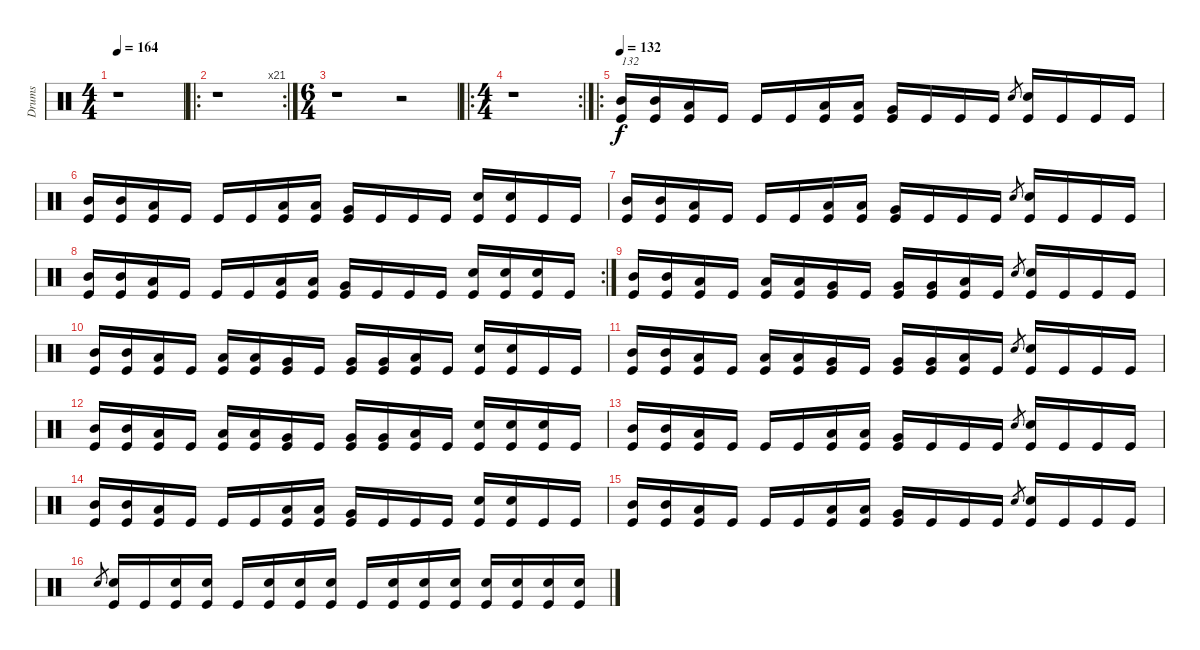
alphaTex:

\track ("Drums" "Drums") {instrument percussion}
\staff {score}
\articulation defaults
\ts (4 4)
\tempo 164
\tempo 126
\tempo 164
\clef neutral
\ks c
r.1{dy f} |
\ro
\rc 21
r.1 |
\ts (6 4)
r.1 r.2 |
\ro
\rc 2
\ts (4 4)
r.1 |
\ro
\tempo 132
("Mid Tom (hit)" "Kick (hit)").16{txt "132"} ("Mid Tom (hit)" "Kick (hit)").16 ("Low Tom (hit)" "Kick (hit)").16 "Kick (hit)".16 "Kick (hit)".16 "Kick (hit)".16 ("Low Tom (hit)" "Kick (hit)").16 ("Low Tom (hit)" "Kick (hit)").16 ("Very Low Tom (hit)" "Kick (hit)").16 "Kick (hit)".16 "Kick (hit)".16 "Kick (hit)".16 "Snare (hit) 2".8{gr} ("Snare (hit) 2" "Kick (hit)").16 "Kick (hit)".16 "Kick (hit)".16 "Kick (hit)".16 |
("Mid Tom (hit)" "Kick (hit)").16 ("Mid Tom (hit)" "Kick (hit)").16 ("Low Tom (hit)" "Kick (hit)").16 "Kick (hit)".16 "Kick (hit)".16 "Kick (hit)".16 ("Low Tom (hit)" "Kick (hit)").16 ("Low Tom (hit)" "Kick (hit)").16 ("Very Low Tom (hit)" "Kick (hit)").16 "Kick (hit)".16 "Kick (hit)".16 "Kick (hit)".16 ("Snare (hit) 2" "Kick (hit)").16 ("Snare (hit) 2" "Kick (hit)").16 "Kick (hit)".16 "Kick (hit)".16 |
("Mid Tom (hit)" "Kick (hit)").16 ("Mid Tom (hit)" "Kick (hit)").16 ("Low Tom (hit)" "Kick (hit)").16 "Kick (hit)".16 "Kick (hit)".16 "Kick (hit)".16 ("Low Tom (hit)" "Kick (hit)").16 ("Low Tom (hit)" "Kick (hit)").16 ("Very Low Tom (hit)" "Kick (hit)").16 "Kick (hit)".16 "Kick (hit)".16 "Kick (hit)".16 "Snare (hit) 2".8{gr} ("Snare (hit) 2" "Kick (hit)").16 "Kick (hit)".16 "Kick (hit)".16 "Kick (hit)".16 |
\rc 2
("Mid Tom (hit)" "Kick (hit)").16 ("Mid Tom (hit)" "Kick (hit)").16 ("Low Tom (hit)" "Kick (hit)").16 "Kick (hit)".16 "Kick (hit)".16 "Kick (hit)".16 ("Low Tom (hit)" "Kick (hit)").16 ("Low Tom (hit)" "Kick (hit)").16 ("Very Low Tom (hit)" "Kick (hit)").16 "Kick (hit)".16 "Kick (hit)".16 "Kick (hit)".16 ("Snare (hit) 2" "Kick (hit)").16 ("Snare (hit) 2" "Kick (hit)").16 ("Snare (hit) 2" "Kick (hit)").16 "Kick (hit)".16 |
("Mid Tom (hit)" "Kick (hit)").16 ("Mid Tom (hit)" "Kick (hit)").16 ("Low Tom (hit)" "Kick (hit)").16 "Kick (hit)".16 ("Low Tom (hit)" "Kick (hit)").16 ("Low Tom (hit)" "Kick (hit)").16 ("Very Low Tom (hit)" "Kick (hit)").16 "Kick (hit)".16 ("Very Low Tom (hit)" "Kick (hit)").16 ("Very Low Tom (hit)" "Kick (hit)").16 ("Low Floor Tom (hit)" "Kick (hit)").16 "Kick (hit)".16 "Snare (hit) 2".8{gr} ("Snare (hit) 2" "Kick (hit)").16 "Kick (hit)".16 "Kick (hit)".16 "Kick (hit)".16 |
("Mid Tom (hit)" "Kick (hit)").16 ("Mid Tom (hit)" "Kick (hit)").16 ("Low Tom (hit)" "Kick (hit)").16 "Kick (hit)".16 ("Low Tom (hit)" "Kick (hit)").16 ("Low Tom (hit)" "Kick (hit)").16 ("Very Low Tom (hit)" "Kick (hit)").16 "Kick (hit)".16 ("Very Low Tom (hit)" "Kick (hit)").16 ("Very Low Tom (hit)" "Kick (hit)").16 ("Low Floor Tom (hit)" "Kick (hit)").16 "Kick (hit)".16 ("Snare (hit) 2" "Kick (hit)").16 ("Snare (hit) 2" "Kick (hit)").16 "Kick (hit)".16 "Kick (hit)".16 |
("Mid Tom (hit)" "Kick (hit)").16 ("Mid Tom (hit)" "Kick (hit)").16 ("Low Tom (hit)" "Kick (hit)").16 "Kick (hit)".16 ("Low Tom (hit)" "Kick (hit)").16 ("Low Tom (hit)" "Kick (hit)").16 ("Very Low Tom (hit)" "Kick (hit)").16 "Kick (hit)".16 ("Very Low Tom (hit)" "Kick (hit)").16 ("Very Low Tom (hit)" "Kick (hit)").16 ("Low Floor Tom (hit)" "Kick (hit)").16 "Kick (hit)".16 "Snare (hit) 2".8{gr} ("Snare (hit) 2" "Kick (hit)").16 "Kick (hit)".16 "Kick (hit)".16 "Kick (hit)".16 |
("Mid Tom (hit)" "Kick (hit)").16 ("Mid Tom (hit)" "Kick (hit)").16 ("Low Tom (hit)" "Kick (hit)").16 "Kick (hit)".16 ("Low Tom (hit)" "Kick (hit)").16 ("Low Tom (hit)" "Kick (hit)").16 ("Very Low Tom (hit)" "Kick (hit)").16 "Kick (hit)".16 ("Very Low Tom (hit)" "Kick (hit)").16 ("Very Low Tom (hit)" "Kick (hit)").16 ("Low Floor Tom (hit)" "Kick (hit)").16 "Kick (hit)".16 ("Snare (hit) 2" "Kick (hit)").16 ("Snare (hit) 2" "Kick (hit)").16 ("Snare (hit) 2" "Kick (hit)").16 "Kick (hit)".16 |
("Mid Tom (hit)" "Kick (hit)").16 ("Mid Tom (hit)" "Kick (hit)").16 ("Low Tom (hit)" "Kick (hit)").16 "Kick (hit)".16 "Kick (hit)".16 "Kick (hit)".16 ("Low Tom (hit)" "Kick (hit)").16 ("Low Tom (hit)" "Kick (hit)").16 ("Very Low Tom (hit)" "Kick (hit)").16 "Kick (hit)".16 "Kick (hit)".16 "Kick (hit)".16 "Snare (hit) 2".8{gr} ("Snare (hit) 2" "Kick (hit)").16 "Kick (hit)".16 "Kick (hit)".16 "Kick (hit)".16 |
("Mid Tom (hit)" "Kick (hit)").16 ("Mid Tom (hit)" "Kick (hit)").16 ("Low Tom (hit)" "Kick (hit)").16 "Kick (hit)".16 "Kick (hit)".16 "Kick (hit)".16 ("Low Tom (hit)" "Kick (hit)").16 ("Low Tom (hit)" "Kick (hit)").16 ("Very Low Tom (hit)" "Kick (hit)").16 "Kick (hit)".16 "Kick (hit)".16 "Kick (hit)".16 ("Snare (hit) 2" "Kick (hit)").16 ("Snare (hit) 2" "Kick (hit)").16 "Kick (hit)".16 "Kick (hit)".16 |
("Mid Tom (hit)" "Kick (hit)").16 ("Mid Tom (hit)" "Kick (hit)").16 ("Low Tom (hit)" "Kick (hit)").16 "Kick (hit)".16 "Kick (hit)".16 "Kick (hit)".16 ("Low Tom (hit)" "Kick (hit)").16 ("Low Tom (hit)" "Kick (hit)").16 ("Very Low Tom (hit)" "Kick (hit)").16 "Kick (hit)".16 "Kick (hit)".16 "Kick (hit)".16 "Snare (hit) 2".8{gr} ("Snare (hit) 2" "Kick (hit)").16 "Kick (hit)".16 "Kick (hit)".16 "Kick (hit)".16 |
"Snare (hit) 2".8{gr} ("Snare (hit) 2" "Kick (hit)").16 "Kick (hit)".16 ("Snare (hit) 2" "Kick (hit)").16 ("Snare (hit) 2" "Kick (hit)").16 "Kick (hit)".16 ("Snare (hit) 2" "Kick (hit)").16 ("Snare (hit) 2" "Kick (hit)").16 ("Snare (hit) 2" "Kick (hit)").16 "Kick (hit)".16 ("Snare (hit) 2" "Kick (hit)").16 ("Snare (hit) 2" "Kick (hit)").16 ("Snare (hit) 2" "Kick (hit)").16 ("Snare (hit) 2" "Kick (hit)").16 ("Snare (hit) 2" "Kick (hit)").16 ("Snare (hit) 2" "Kick (hit)").16 ("Snare (hit) 2" "Kick (hit)").16
